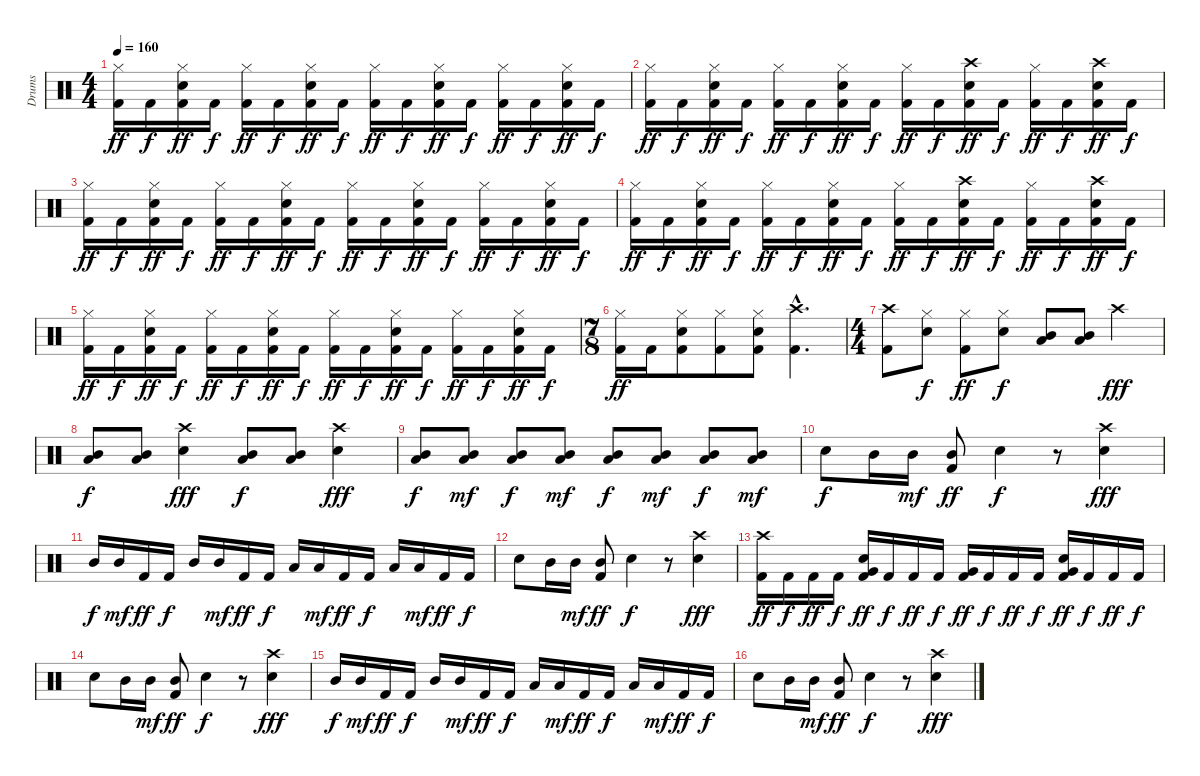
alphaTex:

\track ("Drums" "Drums") {instrument percussion}
\staff {score}
\articulation defaults
\ts (4 4)
\tempo 160
\clef neutral
\ks c
("Hi-Hat (closed)" "Kick (hit) 2").16{dy ff} "Kick (hit) 2".16{dy f} ("Hi-Hat (closed)" "Snare (hit) 2" "Kick (hit) 2").16{dy ff} "Kick (hit) 2".16{dy f} ("Hi-Hat (closed)" "Kick (hit) 2").16{dy ff} "Kick (hit) 2".16{dy f} ("Hi-Hat (closed)" "Snare (hit) 2" "Kick (hit) 2").16{dy ff} "Kick (hit) 2".16{dy f} ("Hi-Hat (closed)" "Kick (hit) 2").16{dy ff} "Kick (hit) 2".16{dy f} ("Hi-Hat (closed)" "Snare (hit) 2" "Kick (hit) 2").16{dy ff} "Kick (hit) 2".16{dy f} ("Hi-Hat (closed)" "Kick (hit) 2").16{dy ff} "Kick (hit) 2".16{dy f} ("Hi-Hat (closed)" "Snare (hit) 2" "Kick (hit) 2").16{dy ff} "Kick (hit) 2".16{dy f} |
("Hi-Hat (closed)" "Kick (hit) 2").16{dy ff} "Kick (hit) 2".16{dy f} ("Hi-Hat (closed)" "Snare (hit) 2" "Kick (hit) 2").16{dy ff} "Kick (hit) 2".16{dy f} ("Hi-Hat (closed)" "Kick (hit) 2").16{dy ff} "Kick (hit) 2".16{dy f} ("Hi-Hat (closed)" "Snare (hit) 2" "Kick (hit) 2").16{dy ff} "Kick (hit) 2".16{dy f} ("Hi-Hat (closed)" "Kick (hit) 2").16{dy ff} "Kick (hit) 2".16{dy f} ("Crash high (hit)" "Snare (hit) 2" "Kick (hit) 2").16{dy ff} "Kick (hit) 2".16{dy f} ("Hi-Hat (closed)" "Kick (hit) 2").16{dy ff} "Kick (hit) 2".16{dy f} ("Crash high (hit)" "Snare (hit) 2" "Kick (hit) 2").16{dy ff} "Kick (hit) 2".16{dy f} |
("Hi-Hat (closed)" "Kick (hit) 2").16{dy ff} "Kick (hit) 2".16{dy f} ("Hi-Hat (closed)" "Snare (hit) 2" "Kick (hit) 2").16{dy ff} "Kick (hit) 2".16{dy f} ("Hi-Hat (closed)" "Kick (hit) 2").16{dy ff} "Kick (hit) 2".16{dy f} ("Hi-Hat (closed)" "Snare (hit) 2" "Kick (hit) 2").16{dy ff} "Kick (hit) 2".16{dy f} ("Hi-Hat (closed)" "Kick (hit) 2").16{dy ff} "Kick (hit) 2".16{dy f} ("Hi-Hat (closed)" "Snare (hit) 2" "Kick (hit) 2").16{dy ff} "Kick (hit) 2".16{dy f} ("Hi-Hat (closed)" "Kick (hit) 2").16{dy ff} "Kick (hit) 2".16{dy f} ("Hi-Hat (closed)" "Snare (hit) 2" "Kick (hit) 2").16{dy ff} "Kick (hit) 2".16{dy f} |
("Hi-Hat (closed)" "Kick (hit) 2").16{dy ff} "Kick (hit) 2".16{dy f} ("Hi-Hat (closed)" "Snare (hit) 2" "Kick (hit) 2").16{dy ff} "Kick (hit) 2".16{dy f} ("Hi-Hat (closed)" "Kick (hit) 2").16{dy ff} "Kick (hit) 2".16{dy f} ("Hi-Hat (closed)" "Snare (hit) 2" "Kick (hit) 2").16{dy ff} "Kick (hit) 2".16{dy f} ("Hi-Hat (closed)" "Kick (hit) 2").16{dy ff} "Kick (hit) 2".16{dy f} ("Crash high (hit)" "Snare (hit) 2" "Kick (hit) 2").16{dy ff} "Kick (hit) 2".16{dy f} ("Hi-Hat (closed)" "Kick (hit) 2").16{dy ff} "Kick (hit) 2".16{dy f} ("Crash high (hit)" "Snare (hit) 2" "Kick (hit) 2").16{dy ff} "Kick (hit) 2".16{dy f} |
("Hi-Hat (closed)" "Kick (hit) 2").16{dy ff} "Kick (hit) 2".16{dy f} ("Hi-Hat (closed)" "Snare (hit) 2" "Kick (hit) 2").16{dy ff} "Kick (hit) 2".16{dy f} ("Hi-Hat (closed)" "Kick (hit) 2").16{dy ff} "Kick (hit) 2".16{dy f} ("Hi-Hat (closed)" "Snare (hit) 2" "Kick (hit) 2").16{dy ff} "Kick (hit) 2".16{dy f} ("Hi-Hat (closed)" "Kick (hit) 2").16{dy ff} "Kick (hit) 2".16{dy f} ("Hi-Hat (closed)" "Snare (hit) 2" "Kick (hit) 2").16{dy ff} "Kick (hit) 2".16{dy f} ("Hi-Hat (closed)" "Kick (hit) 2").16{dy ff} "Kick (hit) 2".16{dy f} ("Hi-Hat (closed)" "Snare (hit) 2" "Kick (hit) 2").16{dy ff} "Kick (hit) 2".16{dy f} |
\ts (7 8)
("Hi-Hat (closed)" "Kick (hit) 2").16{dy ff} "Kick (hit) 2".16 ("Hi-Hat (closed)" "Snare (hit) 2" "Kick (hit) 2").8 ("Hi-Hat (closed)" "Kick (hit) 2").8 ("Hi-Hat (closed)" "Snare (hit) 2" "Kick (hit) 2").8 ("Crash high (hit)"{hac} "Kick (hit) 2"{hac}).4{d} |
\ts (4 4)
("Crash high (hit)" "Kick (hit) 2").8 ("Hi-Hat (closed)" "Snare (hit) 2").8{dy f} ("Hi-Hat (closed)" "Kick (hit) 2").8{dy ff} ("Hi-Hat (closed)" "Snare (hit) 2").8{dy f} ("Mid Tom (hit)" "Low Tom (hit)").8 ("Mid Tom (hit)" "Low Tom (hit)").8 "Crash high (hit)".4{dy fff} |
("Mid Tom (hit)" "Low Tom (hit)").8{dy f} ("Mid Tom (hit)" "Low Tom (hit)").8 ("Crash high (hit)" "Snare (hit) 2").4{dy fff} ("Mid Tom (hit)" "Low Tom (hit)").8{dy f} ("Mid Tom (hit)" "Low Tom (hit)").8 ("Crash high (hit)" "Snare (hit) 2").4{dy fff} |
("Mid Tom (hit)" "Low Tom (hit)").8{dy f} ("Mid Tom (hit)" "Low Tom (hit)").8{dy mf} ("Mid Tom (hit)" "Low Tom (hit)").8{dy f} ("Mid Tom (hit)" "Low Tom (hit)").8{dy mf} ("Mid Tom (hit)" "Low Tom (hit)").8{dy f} ("Mid Tom (hit)" "Low Tom (hit)").8{dy mf} ("Mid Tom (hit)" "Low Tom (hit)").8{dy f} ("Mid Tom (hit)" "Low Tom (hit)").8{dy mf} |
"Snare (hit) 2".8{dy f} "Mid Tom (hit)".16 "Mid Tom (hit)".16{dy mf} ("Mid Tom (hit)" "Kick (hit) 2").8{dy ff} "Snare (hit) 2".4{dy f} r.8 ("Crash high (hit)" "Snare (hit) 2").4{dy fff} |
"Mid Tom (hit)".16{dy f} "Mid Tom (hit)".16{dy mf} "Kick (hit) 2".16{dy ff} "Kick (hit) 2".16{dy f} "Mid Tom (hit)".16 "Mid Tom (hit)".16{dy mf} "Kick (hit) 2".16{dy ff} "Kick (hit) 2".16{dy f} "Low Tom (hit)".16 "Low Tom (hit)".16{dy mf} "Kick (hit) 2".16{dy ff} "Kick (hit) 2".16{dy f} "Low Tom (hit)".16 "Low Tom (hit)".16{dy mf} "Kick (hit) 2".16{dy ff} "Kick (hit) 2".16{dy f} |
"Snare (hit) 2".8 "Mid Tom (hit)".16 "Mid Tom (hit)".16{dy mf} ("Mid Tom (hit)" "Kick (hit) 2").8{dy ff} "Snare (hit) 2".4{dy f} r.8 ("Crash high (hit)" "Snare (hit) 2").4{dy fff} |
("Crash high (hit)" "Kick (hit) 2").16{dy ff} "Kick (hit) 2".16{dy f} "Kick (hit) 2".16{dy ff} "Kick (hit) 2".16{dy f} ("Very Low Tom (hit)" "Snare (hit) 2" "Kick (hit) 2").16{dy ff} "Kick (hit) 2".16{dy f} "Kick (hit) 2".16{dy ff} "Kick (hit) 2".16{dy f} ("Very Low Tom (hit)" "Kick (hit) 2").16{dy ff} "Kick (hit) 2".16{dy f} "Kick (hit) 2".16{dy ff} "Kick (hit) 2".16{dy f} ("Very Low Tom (hit)" "Snare (hit) 2" "Kick (hit) 2").16{dy ff} "Kick (hit) 2".16{dy f} "Kick (hit) 2".16{dy ff} "Kick (hit) 2".16{dy f} |
"Snare (hit) 2".8 "Mid Tom (hit)".16 "Mid Tom (hit)".16{dy mf} ("Mid Tom (hit)" "Kick (hit) 2").8{dy ff} "Snare (hit) 2".4{dy f} r.8 ("Crash high (hit)" "Snare (hit) 2").4{dy fff} |
"Mid Tom (hit)".16{dy f} "Mid Tom (hit)".16{dy mf} "Kick (hit) 2".16{dy ff} "Kick (hit) 2".16{dy f} "Mid Tom (hit)".16 "Mid Tom (hit)".16{dy mf} "Kick (hit) 2".16{dy ff} "Kick (hit) 2".16{dy f} "Low Tom (hit)".16 "Low Tom (hit)".16{dy mf} "Kick (hit) 2".16{dy ff} "Kick (hit) 2".16{dy f} "Low Tom (hit)".16 "Low Tom (hit)".16{dy mf} "Kick (hit) 2".16{dy ff} "Kick (hit) 2".16{dy f} |
"Snare (hit) 2".8 "Mid Tom (hit)".16 "Mid Tom (hit)".16{dy mf} ("Mid Tom (hit)" "Kick (hit) 2").8{dy ff} "Snare (hit) 2".4{dy f} r.8 ("Crash high (hit)" "Snare (hit) 2").4{dy fff}
